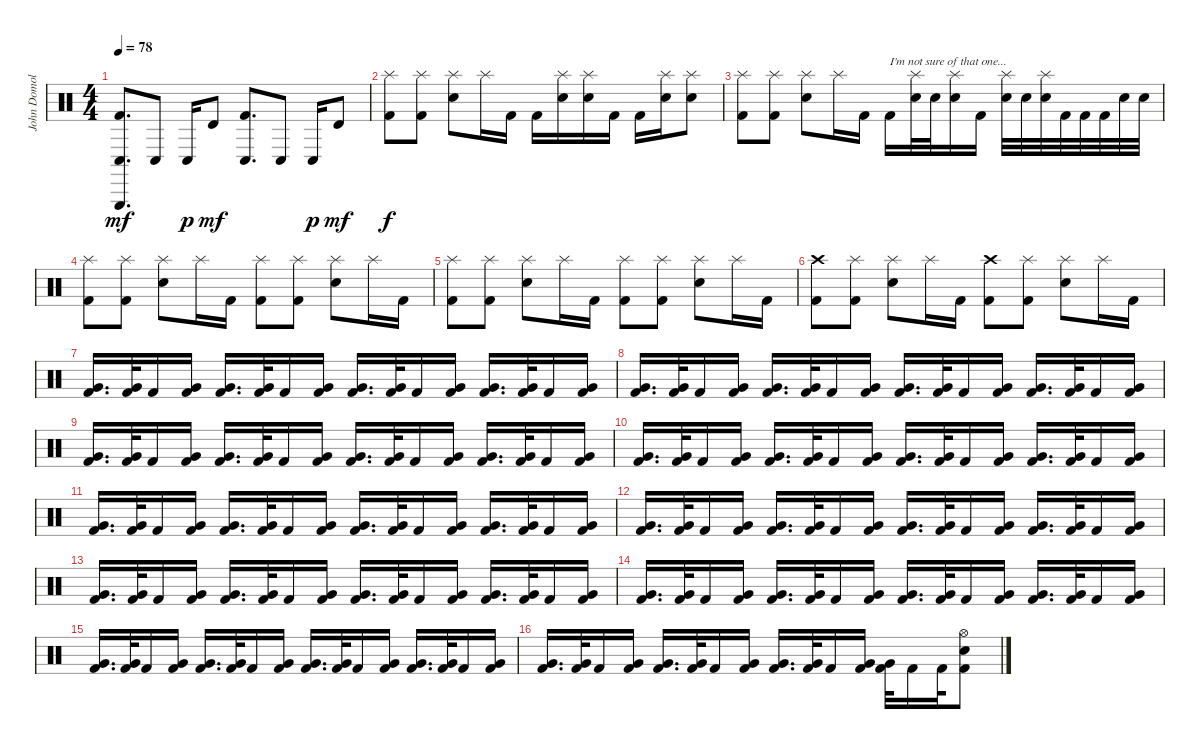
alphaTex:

\track ("John Domolyan (Drums)" "John Domol") {instrument percussion}
\staff {score}
\articulation defaults
\ts (4 4)
\tempo 78
\clef neutral
\ks c
("Triangle (hit)" "Conga low (hit)" "Kick (hit) 2").8{d dy mf} "Conga low (hit)".8 "Conga low (hit)".16{dy p} "Timbale high (hit)".8{dy mf} ("Conga low (hit)" "Kick (hit) 2").8{d} "Conga low (hit)".8 "Conga low (hit)".16{dy p} "Timbale high (hit)".8{dy mf} |
("Splash (hit)" "Kick (hit) 2").8{dy f} ("Splash (hit)" "Kick (hit) 2").8 ("Splash (hit)" "Electric Snare (hit)").8 "Splash (hit)".16 "Kick (hit) 2".16 "Kick (hit) 2".16 ("Splash (hit)" "Electric Snare (hit)").16 ("Splash (hit)" "Electric Snare (hit)").16 "Kick (hit) 2".16 "Kick (hit) 2".16 ("Splash (hit)" "Electric Snare (hit)").16 ("Splash (hit)" "Electric Snare (hit)").8 |
("Splash (hit)" "Kick (hit) 2").8 ("Splash (hit)" "Kick (hit) 2").8 ("Splash (hit)" "Electric Snare (hit)").8 "Splash (hit)".16 "Kick (hit) 2".16 "Kick (hit) 2".16{txt "I'm not sure of that one..."} ("Splash (hit)" "Electric Snare (hit)").32 "Electric Snare (hit)".32 ("Splash (hit)" "Electric Snare (hit)").16 "Kick (hit) 2".16 ("Splash (hit)" "Electric Snare (hit)").32 "Electric Snare (hit)".32 ("Splash (hit)" "Electric Snare (hit)").32 "Kick (hit) 2".32 "Kick (hit) 2".32 "Kick (hit) 2".32 "Electric Snare (hit)".32 "Electric Snare (hit)".32 |
("Splash (hit)" "Kick (hit) 2").8 ("Splash (hit)" "Kick (hit) 2").8 ("Splash (hit)" "Electric Snare (hit)").8 "Splash (hit)".16 "Kick (hit) 2".16 ("Splash (hit)" "Kick (hit) 2").8 ("Splash (hit)" "Kick (hit) 2").8 ("Splash (hit)" "Electric Snare (hit)").8 "Splash (hit)".16 "Kick (hit) 2".16 |
("Splash (hit)" "Kick (hit) 2").8 ("Splash (hit)" "Kick (hit) 2").8 ("Splash (hit)" "Electric Snare (hit)").8 "Splash (hit)".16 "Kick (hit) 2".16 ("Splash (hit)" "Kick (hit) 2").8 ("Splash (hit)" "Kick (hit) 2").8 ("Splash (hit)" "Electric Snare (hit)").8 "Splash (hit)".16 "Kick (hit) 2".16 |
("Crash high (hit)" "Kick (hit) 2").8 ("Splash (hit)" "Kick (hit) 2").8 ("Splash (hit)" "Snare (hit) 2").8 "Splash (hit)".16 "Kick (hit) 2".16 ("Crash high (hit)" "Kick (hit) 2").8 ("Splash (hit)" "Kick (hit) 2").8 ("Splash (hit)" "Snare (hit) 2").8 "Splash (hit)".16 "Kick (hit) 2".16 |
("Very Low Tom (hit)" "Kick (hit) 2").16{d} ("Very Low Tom (hit)" "Kick (hit) 2").32 "Kick (hit) 2".16 ("Very Low Tom (hit)" "Kick (hit) 2").16 ("Very Low Tom (hit)" "Kick (hit) 2").16{d} ("Very Low Tom (hit)" "Kick (hit) 2").32 "Kick (hit) 2".16 ("Very Low Tom (hit)" "Kick (hit) 2").16 ("Very Low Tom (hit)" "Kick (hit) 2").16{d} ("Very Low Tom (hit)" "Kick (hit) 2").32 "Kick (hit) 2".16 ("Very Low Tom (hit)" "Kick (hit) 2").16 ("Very Low Tom (hit)" "Kick (hit) 2").16{d} ("Very Low Tom (hit)" "Kick (hit) 2").32 "Kick (hit) 2".16 ("Very Low Tom (hit)" "Kick (hit) 2").16 |
("Very Low Tom (hit)" "Kick (hit) 2").16{d} ("Very Low Tom (hit)" "Kick (hit) 2").32 "Kick (hit) 2".16 ("Very Low Tom (hit)" "Kick (hit) 2").16 ("Very Low Tom (hit)" "Kick (hit) 2").16{d} ("Very Low Tom (hit)" "Kick (hit) 2").32 "Kick (hit) 2".16 ("Very Low Tom (hit)" "Kick (hit) 2").16 ("Very Low Tom (hit)" "Kick (hit) 2").16{d} ("Very Low Tom (hit)" "Kick (hit) 2").32 "Kick (hit) 2".16 ("Very Low Tom (hit)" "Kick (hit) 2").16 ("Very Low Tom (hit)" "Kick (hit) 2").16{d} ("Very Low Tom (hit)" "Kick (hit) 2").32 "Kick (hit) 2".16 ("Very Low Tom (hit)" "Kick (hit) 2").16 |
("Very Low Tom (hit)" "Kick (hit) 2").16{d} ("Very Low Tom (hit)" "Kick (hit) 2").32 "Kick (hit) 2".16 ("Very Low Tom (hit)" "Kick (hit) 2").16 ("Very Low Tom (hit)" "Kick (hit) 2").16{d} ("Very Low Tom (hit)" "Kick (hit) 2").32 "Kick (hit) 2".16 ("Very Low Tom (hit)" "Kick (hit) 2").16 ("Very Low Tom (hit)" "Kick (hit) 2").16{d} ("Very Low Tom (hit)" "Kick (hit) 2").32 "Kick (hit) 2".16 ("Very Low Tom (hit)" "Kick (hit) 2").16 ("Very Low Tom (hit)" "Kick (hit) 2").16{d} ("Very Low Tom (hit)" "Kick (hit) 2").32 "Kick (hit) 2".16 ("Very Low Tom (hit)" "Kick (hit) 2").16 |
("Very Low Tom (hit)" "Kick (hit) 2").16{d} ("Very Low Tom (hit)" "Kick (hit) 2").32 "Kick (hit) 2".16 ("Very Low Tom (hit)" "Kick (hit) 2").16 ("Very Low Tom (hit)" "Kick (hit) 2").16{d} ("Very Low Tom (hit)" "Kick (hit) 2").32 "Kick (hit) 2".16 ("Very Low Tom (hit)" "Kick (hit) 2").16 ("Very Low Tom (hit)" "Kick (hit) 2").16{d} ("Very Low Tom (hit)" "Kick (hit) 2").32 "Kick (hit) 2".16 ("Very Low Tom (hit)" "Kick (hit) 2").16 ("Very Low Tom (hit)" "Kick (hit) 2").16{d} ("Very Low Tom (hit)" "Kick (hit) 2").32 "Kick (hit) 2".16 ("Very Low Tom (hit)" "Kick (hit) 2").16 |
("Very Low Tom (hit)" "Kick (hit) 2").16{d} ("Very Low Tom (hit)" "Kick (hit) 2").32 "Kick (hit) 2".16 ("Very Low Tom (hit)" "Kick (hit) 2").16 ("Very Low Tom (hit)" "Kick (hit) 2").16{d} ("Very Low Tom (hit)" "Kick (hit) 2").32 "Kick (hit) 2".16 ("Very Low Tom (hit)" "Kick (hit) 2").16 ("Very Low Tom (hit)" "Kick (hit) 2").16{d} ("Very Low Tom (hit)" "Kick (hit) 2").32 "Kick (hit) 2".16 ("Very Low Tom (hit)" "Kick (hit) 2").16 ("Very Low Tom (hit)" "Kick (hit) 2").16{d} ("Very Low Tom (hit)" "Kick (hit) 2").32 "Kick (hit) 2".16 ("Very Low Tom (hit)" "Kick (hit) 2").16 |
("Very Low Tom (hit)" "Kick (hit) 2").16{d} ("Very Low Tom (hit)" "Kick (hit) 2").32 "Kick (hit) 2".16 ("Very Low Tom (hit)" "Kick (hit) 2").16 ("Very Low Tom (hit)" "Kick (hit) 2").16{d} ("Very Low Tom (hit)" "Kick (hit) 2").32 "Kick (hit) 2".16 ("Very Low Tom (hit)" "Kick (hit) 2").16 ("Very Low Tom (hit)" "Kick (hit) 2").16{d} ("Very Low Tom (hit)" "Kick (hit) 2").32 "Kick (hit) 2".16 ("Very Low Tom (hit)" "Kick (hit) 2").16 ("Very Low Tom (hit)" "Kick (hit) 2").16{d} ("Very Low Tom (hit)" "Kick (hit) 2").32 "Kick (hit) 2".16 ("Very Low Tom (hit)" "Kick (hit) 2").16 |
("Very Low Tom (hit)" "Kick (hit) 2").16{d} ("Very Low Tom (hit)" "Kick (hit) 2").32 "Kick (hit) 2".16 ("Very Low Tom (hit)" "Kick (hit) 2").16 ("Very Low Tom (hit)" "Kick (hit) 2").16{d} ("Very Low Tom (hit)" "Kick (hit) 2").32 "Kick (hit) 2".16 ("Very Low Tom (hit)" "Kick (hit) 2").16 ("Very Low Tom (hit)" "Kick (hit) 2").16{d} ("Very Low Tom (hit)" "Kick (hit) 2").32 "Kick (hit) 2".16 ("Very Low Tom (hit)" "Kick (hit) 2").16 ("Very Low Tom (hit)" "Kick (hit) 2").16{d} ("Very Low Tom (hit)" "Kick (hit) 2").32 "Kick (hit) 2".16 ("Very Low Tom (hit)" "Kick (hit) 2").16 |
("Very Low Tom (hit)" "Kick (hit) 2").16{d} ("Very Low Tom (hit)" "Kick (hit) 2").32 "Kick (hit) 2".16 ("Very Low Tom (hit)" "Kick (hit) 2").16 ("Very Low Tom (hit)" "Kick (hit) 2").16{d} ("Very Low Tom (hit)" "Kick (hit) 2").32 "Kick (hit) 2".16 ("Very Low Tom (hit)" "Kick (hit) 2").16 ("Very Low Tom (hit)" "Kick (hit) 2").16{d} ("Very Low Tom (hit)" "Kick (hit) 2").32 "Kick (hit) 2".16 ("Very Low Tom (hit)" "Kick (hit) 2").16 ("Very Low Tom (hit)" "Kick (hit) 2").16{d} ("Very Low Tom (hit)" "Kick (hit) 2").32 "Kick (hit) 2".16 ("Very Low Tom (hit)" "Kick (hit) 2").16 |
("Very Low Tom (hit)" "Kick (hit) 2").16{d} ("Very Low Tom (hit)" "Kick (hit) 2").32 "Kick (hit) 2".16 ("Very Low Tom (hit)" "Kick (hit) 2").16 ("Very Low Tom (hit)" "Kick (hit) 2").16{d} ("Very Low Tom (hit)" "Kick (hit) 2").32 "Kick (hit) 2".16 ("Very Low Tom (hit)" "Kick (hit) 2").16 ("Very Low Tom (hit)" "Kick (hit) 2").16{d} ("Very Low Tom (hit)" "Kick (hit) 2").32 "Kick (hit) 2".16 ("Very Low Tom (hit)" "Kick (hit) 2").16 ("Very Low Tom (hit)" "Kick (hit) 2").16{d} ("Very Low Tom (hit)" "Kick (hit) 2").32 "Kick (hit) 2".16 ("Very Low Tom (hit)" "Kick (hit) 2").16 |
("Very Low Tom (hit)" "Kick (hit) 2").16{d} ("Very Low Tom (hit)" "Kick (hit) 2").32 "Kick (hit) 2".16 ("Very Low Tom (hit)" "Kick (hit) 2").16 ("Very Low Tom (hit)" "Kick (hit) 2").16{d} ("Very Low Tom (hit)" "Kick (hit) 2").32 "Kick (hit) 2".16 ("Very Low Tom (hit)" "Kick (hit) 2").16 ("Very Low Tom (hit)" "Kick (hit) 2").16{d} ("Very Low Tom (hit)" "Kick (hit) 2").32 "Kick (hit) 2".16 ("Very Low Tom (hit)" "Kick (hit) 2").16 ("Very Low Tom (hit)" "Kick (hit) 2").32 "Kick (hit) 2".16 "Kick (hit) 2".32 ("Hi-Hat (open)" "Electric Snare (hit)" "Kick (hit) 2").8
